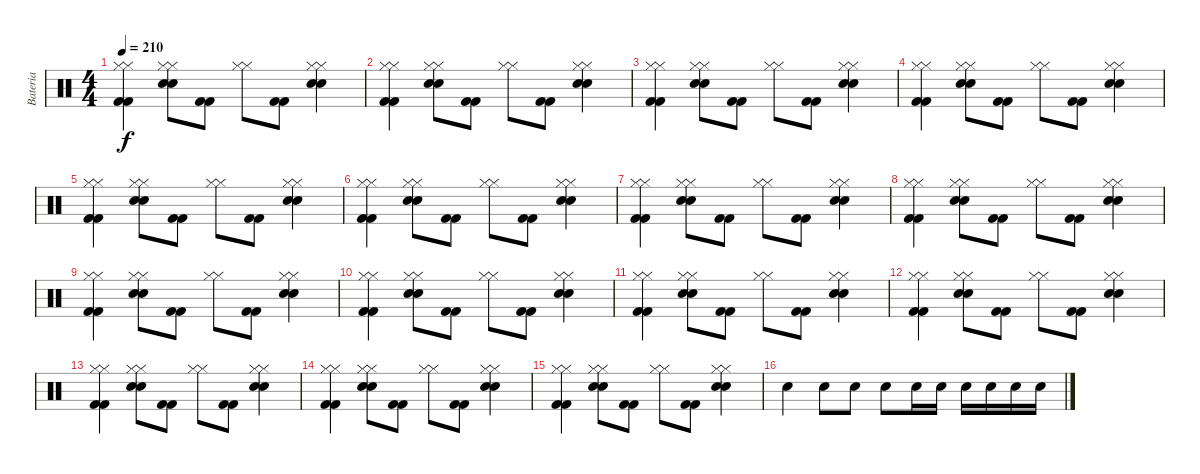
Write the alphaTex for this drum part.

\track ("Bateria" "Bateria") {instrument percussion}
\staff {score}
\articulation defaults
\ts (4 4)
\tempo 210
\clef neutral
\ks c
("Hi-Hat (closed)" "Hi-Hat (closed)" "Kick (hit) 2" "Kick (hit) 2").4{dy f} ("Hi-Hat (closed)" "Hi-Hat (closed)" "Snare (hit) 2" "Snare (hit) 2").8 ("Kick (hit) 2" "Kick (hit) 2").8 ("Hi-Hat (closed)" "Hi-Hat (closed)").8 ("Kick (hit) 2" "Kick (hit) 2").8 ("Hi-Hat (closed)" "Hi-Hat (closed)" "Snare (hit) 2" "Snare (hit) 2").4 |
("Hi-Hat (closed)" "Hi-Hat (closed)" "Kick (hit) 2" "Kick (hit) 2").4 ("Hi-Hat (closed)" "Hi-Hat (closed)" "Snare (hit) 2" "Snare (hit) 2").8 ("Kick (hit) 2" "Kick (hit) 2").8 ("Hi-Hat (closed)" "Hi-Hat (closed)").8 ("Kick (hit) 2" "Kick (hit) 2").8 ("Hi-Hat (closed)" "Hi-Hat (closed)" "Snare (hit) 2" "Snare (hit) 2").4 |
("Hi-Hat (closed)" "Hi-Hat (closed)" "Kick (hit) 2" "Kick (hit) 2").4 ("Hi-Hat (closed)" "Hi-Hat (closed)" "Snare (hit) 2" "Snare (hit) 2").8 ("Kick (hit) 2" "Kick (hit) 2").8 ("Hi-Hat (closed)" "Hi-Hat (closed)").8 ("Kick (hit) 2" "Kick (hit) 2").8 ("Hi-Hat (closed)" "Hi-Hat (closed)" "Snare (hit) 2" "Snare (hit) 2").4 |
("Hi-Hat (closed)" "Hi-Hat (closed)" "Kick (hit) 2" "Kick (hit) 2").4 ("Hi-Hat (closed)" "Hi-Hat (closed)" "Snare (hit) 2" "Snare (hit) 2").8 ("Kick (hit) 2" "Kick (hit) 2").8 ("Hi-Hat (closed)" "Hi-Hat (closed)").8 ("Kick (hit) 2" "Kick (hit) 2").8 ("Hi-Hat (closed)" "Hi-Hat (closed)" "Snare (hit) 2" "Snare (hit) 2").4 |
("Hi-Hat (closed)" "Hi-Hat (closed)" "Kick (hit) 2" "Kick (hit) 2").4 ("Hi-Hat (closed)" "Hi-Hat (closed)" "Snare (hit) 2" "Snare (hit) 2").8 ("Kick (hit) 2" "Kick (hit) 2").8 ("Hi-Hat (closed)" "Hi-Hat (closed)").8 ("Kick (hit) 2" "Kick (hit) 2").8 ("Hi-Hat (closed)" "Hi-Hat (closed)" "Snare (hit) 2" "Snare (hit) 2").4 |
("Hi-Hat (closed)" "Hi-Hat (closed)" "Kick (hit) 2" "Kick (hit) 2").4 ("Hi-Hat (closed)" "Hi-Hat (closed)" "Snare (hit) 2" "Snare (hit) 2").8 ("Kick (hit) 2" "Kick (hit) 2").8 ("Hi-Hat (closed)" "Hi-Hat (closed)").8 ("Kick (hit) 2" "Kick (hit) 2").8 ("Hi-Hat (closed)" "Hi-Hat (closed)" "Snare (hit) 2" "Snare (hit) 2").4 |
("Hi-Hat (closed)" "Hi-Hat (closed)" "Kick (hit) 2" "Kick (hit) 2").4 ("Hi-Hat (closed)" "Hi-Hat (closed)" "Snare (hit) 2" "Snare (hit) 2").8 ("Kick (hit) 2" "Kick (hit) 2").8 ("Hi-Hat (closed)" "Hi-Hat (closed)").8 ("Kick (hit) 2" "Kick (hit) 2").8 ("Hi-Hat (closed)" "Hi-Hat (closed)" "Snare (hit) 2" "Snare (hit) 2").4 |
("Hi-Hat (closed)" "Hi-Hat (closed)" "Kick (hit) 2" "Kick (hit) 2").4 ("Hi-Hat (closed)" "Hi-Hat (closed)" "Snare (hit) 2" "Snare (hit) 2").8 ("Kick (hit) 2" "Kick (hit) 2").8 ("Hi-Hat (closed)" "Hi-Hat (closed)").8 ("Kick (hit) 2" "Kick (hit) 2").8 ("Hi-Hat (closed)" "Hi-Hat (closed)" "Snare (hit) 2" "Snare (hit) 2").4 |
("Hi-Hat (closed)" "Hi-Hat (closed)" "Kick (hit) 2" "Kick (hit) 2").4 ("Hi-Hat (closed)" "Hi-Hat (closed)" "Snare (hit) 2" "Snare (hit) 2").8 ("Kick (hit) 2" "Kick (hit) 2").8 ("Hi-Hat (closed)" "Hi-Hat (closed)").8 ("Kick (hit) 2" "Kick (hit) 2").8 ("Hi-Hat (closed)" "Hi-Hat (closed)" "Snare (hit) 2" "Snare (hit) 2").4 |
("Hi-Hat (closed)" "Hi-Hat (closed)" "Kick (hit) 2" "Kick (hit) 2").4 ("Hi-Hat (closed)" "Hi-Hat (closed)" "Snare (hit) 2" "Snare (hit) 2").8 ("Kick (hit) 2" "Kick (hit) 2").8 ("Hi-Hat (closed)" "Hi-Hat (closed)").8 ("Kick (hit) 2" "Kick (hit) 2").8 ("Hi-Hat (closed)" "Hi-Hat (closed)" "Snare (hit) 2" "Snare (hit) 2").4 |
("Hi-Hat (closed)" "Hi-Hat (closed)" "Kick (hit) 2" "Kick (hit) 2").4 ("Hi-Hat (closed)" "Hi-Hat (closed)" "Snare (hit) 2" "Snare (hit) 2").8 ("Kick (hit) 2" "Kick (hit) 2").8 ("Hi-Hat (closed)" "Hi-Hat (closed)").8 ("Kick (hit) 2" "Kick (hit) 2").8 ("Hi-Hat (closed)" "Hi-Hat (closed)" "Snare (hit) 2" "Snare (hit) 2").4 |
("Hi-Hat (closed)" "Hi-Hat (closed)" "Kick (hit) 2" "Kick (hit) 2").4 ("Hi-Hat (closed)" "Hi-Hat (closed)" "Snare (hit) 2" "Snare (hit) 2").8 ("Kick (hit) 2" "Kick (hit) 2").8 ("Hi-Hat (closed)" "Hi-Hat (closed)").8 ("Kick (hit) 2" "Kick (hit) 2").8 ("Hi-Hat (closed)" "Hi-Hat (closed)" "Snare (hit) 2" "Snare (hit) 2").4 |
("Hi-Hat (closed)" "Hi-Hat (closed)" "Kick (hit) 2" "Kick (hit) 2").4 ("Hi-Hat (closed)" "Hi-Hat (closed)" "Snare (hit) 2" "Snare (hit) 2").8 ("Kick (hit) 2" "Kick (hit) 2").8 ("Hi-Hat (closed)" "Hi-Hat (closed)").8 ("Kick (hit) 2" "Kick (hit) 2").8 ("Hi-Hat (closed)" "Hi-Hat (closed)" "Snare (hit) 2" "Snare (hit) 2").4 |
("Hi-Hat (closed)" "Hi-Hat (closed)" "Kick (hit) 2" "Kick (hit) 2").4 ("Hi-Hat (closed)" "Hi-Hat (closed)" "Snare (hit) 2" "Snare (hit) 2").8 ("Kick (hit) 2" "Kick (hit) 2").8 ("Hi-Hat (closed)" "Hi-Hat (closed)").8 ("Kick (hit) 2" "Kick (hit) 2").8 ("Hi-Hat (closed)" "Hi-Hat (closed)" "Snare (hit) 2" "Snare (hit) 2").4 |
("Hi-Hat (closed)" "Hi-Hat (closed)" "Kick (hit) 2" "Kick (hit) 2").4 ("Hi-Hat (closed)" "Hi-Hat (closed)" "Snare (hit) 2" "Snare (hit) 2").8 ("Kick (hit) 2" "Kick (hit) 2").8 ("Hi-Hat (closed)" "Hi-Hat (closed)").8 ("Kick (hit) 2" "Kick (hit) 2").8 ("Hi-Hat (closed)" "Hi-Hat (closed)" "Snare (hit) 2" "Snare (hit) 2").4 |
"Snare (hit) 2".4 "Snare (hit) 2".8 "Snare (hit) 2".8 "Snare (hit) 2".8 "Snare (hit) 2".16 "Snare (hit) 2".16 "Snare (hit) 2".16 "Snare (hit) 2".16 "Snare (hit) 2".16 "Snare (hit) 2".16
